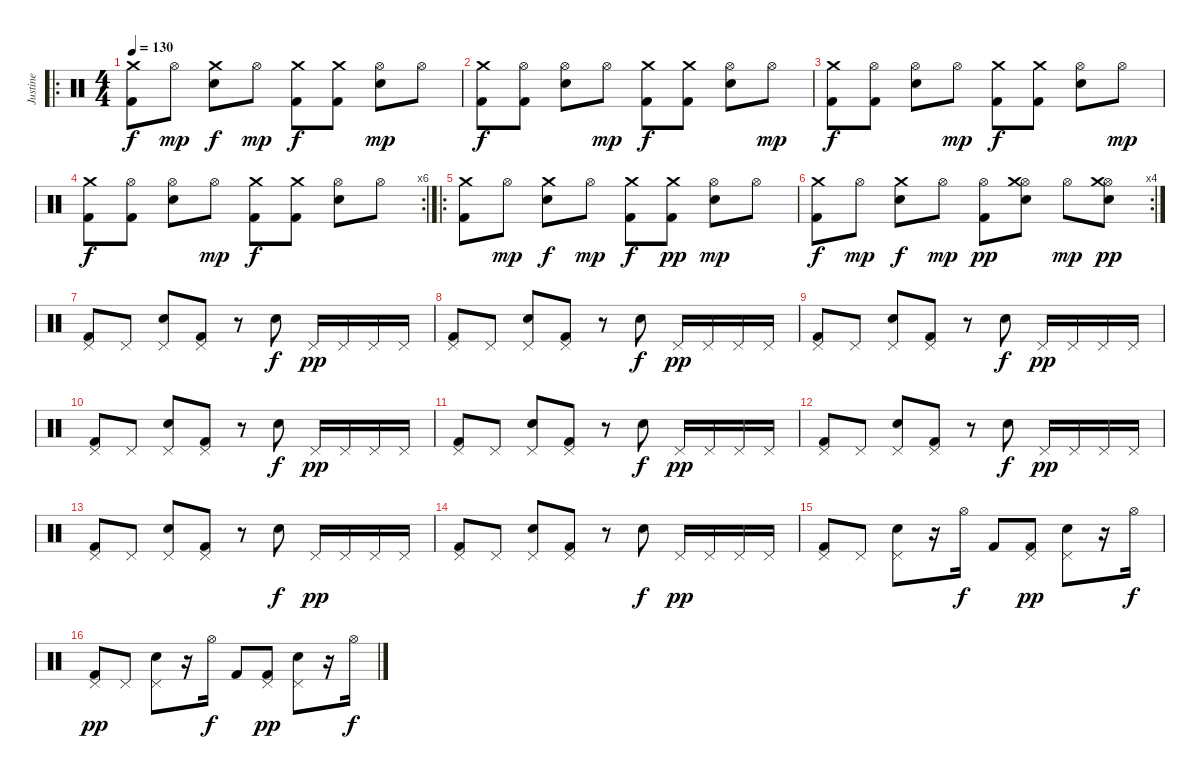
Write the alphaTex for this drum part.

\track ("Justine" "Justine") {instrument percussion}
\staff {score}
\articulation defaults
\ro
\ts (4 4)
\tempo 130
\clef neutral
\ks c
("Crash medium (hit)" "Kick (hit) 2").8{dy f} "Hi-Hat (open)".8{dy mp} ("Crash medium (hit)" "Electric Snare (hit)").8{dy f} "Hi-Hat (open)".8{dy mp} ("Crash medium (hit)" "Kick (hit) 2").8{dy f} ("Crash medium (hit)" "Kick (hit) 2").8 ("Hi-Hat (open)" "Electric Snare (hit)").8{dy mp} "Hi-Hat (open)".8 |
("Crash medium (hit)" "Kick (hit) 2").8{dy f} ("Hi-Hat (open)" "Kick (hit) 2").8 ("Hi-Hat (open)" "Electric Snare (hit)").8 "Hi-Hat (open)".8{dy mp} ("Crash medium (hit)" "Kick (hit) 2").8{dy f} ("Crash medium (hit)" "Kick (hit) 2").8 ("Hi-Hat (open)" "Electric Snare (hit)").8 "Hi-Hat (open)".8{dy mp} |
("Crash medium (hit)" "Kick (hit) 2").8{dy f} ("Hi-Hat (open)" "Kick (hit) 2").8 ("Hi-Hat (open)" "Electric Snare (hit)").8 "Hi-Hat (open)".8{dy mp} ("Crash medium (hit)" "Kick (hit) 2").8{dy f} ("Crash medium (hit)" "Kick (hit) 2").8 ("Hi-Hat (open)" "Electric Snare (hit)").8 "Hi-Hat (open)".8{dy mp} |
\rc 6
("Crash medium (hit)" "Kick (hit) 2").8{dy f} ("Hi-Hat (open)" "Kick (hit) 2").8 ("Hi-Hat (open)" "Electric Snare (hit)").8 "Hi-Hat (open)".8{dy mp} ("Crash medium (hit)" "Kick (hit) 2").8{dy f} ("Crash medium (hit)" "Kick (hit) 2").8 ("Hi-Hat (open)" "Electric Snare (hit)").8 "Hi-Hat (open)".8 |
\ro
("Crash medium (hit)" "Kick (hit) 2").8 "Hi-Hat (open)".8{dy mp} ("Crash medium (hit)" "Electric Snare (hit)").8{dy f} "Hi-Hat (open)".8{dy mp} ("Crash medium (hit)" "Kick (hit) 2").8{dy f} ("Crash medium (hit)" "Kick (hit) 2").8{dy pp} ("Hi-Hat (open)" "Electric Snare (hit)").8{dy mp} "Hi-Hat (open)".8 |
\rc 4
("Crash medium (hit)" "Kick (hit) 2").8{dy f} "Hi-Hat (open)".8{dy mp} ("Crash medium (hit)" "Electric Snare (hit)").8{dy f} "Hi-Hat (open)".8{dy mp} ("Hi-Hat (open)" "Kick (hit) 2").8{dy pp} ("Hi-Hat (open)" "Crash medium (hit)" "Electric Snare (hit)").8 "Hi-Hat (open)".8{dy mp} ("Hi-Hat (open)" "Crash medium (hit)" "Electric Snare (hit)").8{dy pp} |
("Pedal Hi-Hat (hit)" "Kick (hit) 2").8 "Pedal Hi-Hat (hit)".8 ("Pedal Hi-Hat (hit)" "Electric Snare (hit)").8 ("Pedal Hi-Hat (hit)" "Kick (hit) 2").8 r.8 "Electric Snare (hit)".8{dy f} "Pedal Hi-Hat (hit)".16{dy pp} "Pedal Hi-Hat (hit)".16 "Pedal Hi-Hat (hit)".16 "Pedal Hi-Hat (hit)".16 |
("Pedal Hi-Hat (hit)" "Kick (hit) 2").8 "Pedal Hi-Hat (hit)".8 ("Pedal Hi-Hat (hit)" "Electric Snare (hit)").8 ("Pedal Hi-Hat (hit)" "Kick (hit) 2").8 r.8 "Electric Snare (hit)".8{dy f} "Pedal Hi-Hat (hit)".16{dy pp} "Pedal Hi-Hat (hit)".16 "Pedal Hi-Hat (hit)".16 "Pedal Hi-Hat (hit)".16 |
("Pedal Hi-Hat (hit)" "Kick (hit) 2").8 "Pedal Hi-Hat (hit)".8 ("Pedal Hi-Hat (hit)" "Electric Snare (hit)").8 ("Pedal Hi-Hat (hit)" "Kick (hit) 2").8 r.8 "Electric Snare (hit)".8{dy f} "Pedal Hi-Hat (hit)".16{dy pp} "Pedal Hi-Hat (hit)".16 "Pedal Hi-Hat (hit)".16 "Pedal Hi-Hat (hit)".16 |
("Pedal Hi-Hat (hit)" "Kick (hit) 2").8 "Pedal Hi-Hat (hit)".8 ("Pedal Hi-Hat (hit)" "Electric Snare (hit)").8 ("Pedal Hi-Hat (hit)" "Kick (hit) 2").8 r.8 "Electric Snare (hit)".8{dy f} "Pedal Hi-Hat (hit)".16{dy pp} "Pedal Hi-Hat (hit)".16 "Pedal Hi-Hat (hit)".16 "Pedal Hi-Hat (hit)".16 |
("Pedal Hi-Hat (hit)" "Kick (hit) 2").8 "Pedal Hi-Hat (hit)".8 ("Pedal Hi-Hat (hit)" "Electric Snare (hit)").8 ("Pedal Hi-Hat (hit)" "Kick (hit) 2").8 r.8 "Electric Snare (hit)".8{dy f} "Pedal Hi-Hat (hit)".16{dy pp} "Pedal Hi-Hat (hit)".16 "Pedal Hi-Hat (hit)".16 "Pedal Hi-Hat (hit)".16 |
("Pedal Hi-Hat (hit)" "Kick (hit) 2").8 "Pedal Hi-Hat (hit)".8 ("Pedal Hi-Hat (hit)" "Electric Snare (hit)").8 ("Pedal Hi-Hat (hit)" "Kick (hit) 2").8 r.8 "Electric Snare (hit)".8{dy f} "Pedal Hi-Hat (hit)".16{dy pp} "Pedal Hi-Hat (hit)".16 "Pedal Hi-Hat (hit)".16 "Pedal Hi-Hat (hit)".16 |
("Pedal Hi-Hat (hit)" "Kick (hit) 2").8 "Pedal Hi-Hat (hit)".8 ("Pedal Hi-Hat (hit)" "Electric Snare (hit)").8 ("Pedal Hi-Hat (hit)" "Kick (hit) 2").8 r.8 "Electric Snare (hit)".8{dy f} "Pedal Hi-Hat (hit)".16{dy pp} "Pedal Hi-Hat (hit)".16 "Pedal Hi-Hat (hit)".16 "Pedal Hi-Hat (hit)".16 |
("Pedal Hi-Hat (hit)" "Kick (hit) 2").8 "Pedal Hi-Hat (hit)".8 ("Pedal Hi-Hat (hit)" "Electric Snare (hit)").8 ("Pedal Hi-Hat (hit)" "Kick (hit) 2").8 r.8 "Electric Snare (hit)".8{dy f} "Pedal Hi-Hat (hit)".16{dy pp} "Pedal Hi-Hat (hit)".16 "Pedal Hi-Hat (hit)".16 "Pedal Hi-Hat (hit)".16 |
("Pedal Hi-Hat (hit)" "Kick (hit) 2").8 "Pedal Hi-Hat (hit)".8 ("Pedal Hi-Hat (hit)" "Electric Snare (hit)").8 r.16 "Hi-Hat (open)".16{dy f} "Kick (hit) 2".8 ("Pedal Hi-Hat (hit)" "Kick (hit) 2").8{dy pp} ("Pedal Hi-Hat (hit)" "Electric Snare (hit)").8 r.16 "Hi-Hat (open)".16{dy f} |
("Pedal Hi-Hat (hit)" "Kick (hit) 2").8{dy pp} "Pedal Hi-Hat (hit)".8 ("Pedal Hi-Hat (hit)" "Electric Snare (hit)").8 r.16 "Hi-Hat (open)".16{dy f} "Kick (hit) 2".8 ("Pedal Hi-Hat (hit)" "Kick (hit) 2").8{dy pp} ("Pedal Hi-Hat (hit)" "Electric Snare (hit)").8 r.16 "Hi-Hat (open)".16{dy f}
